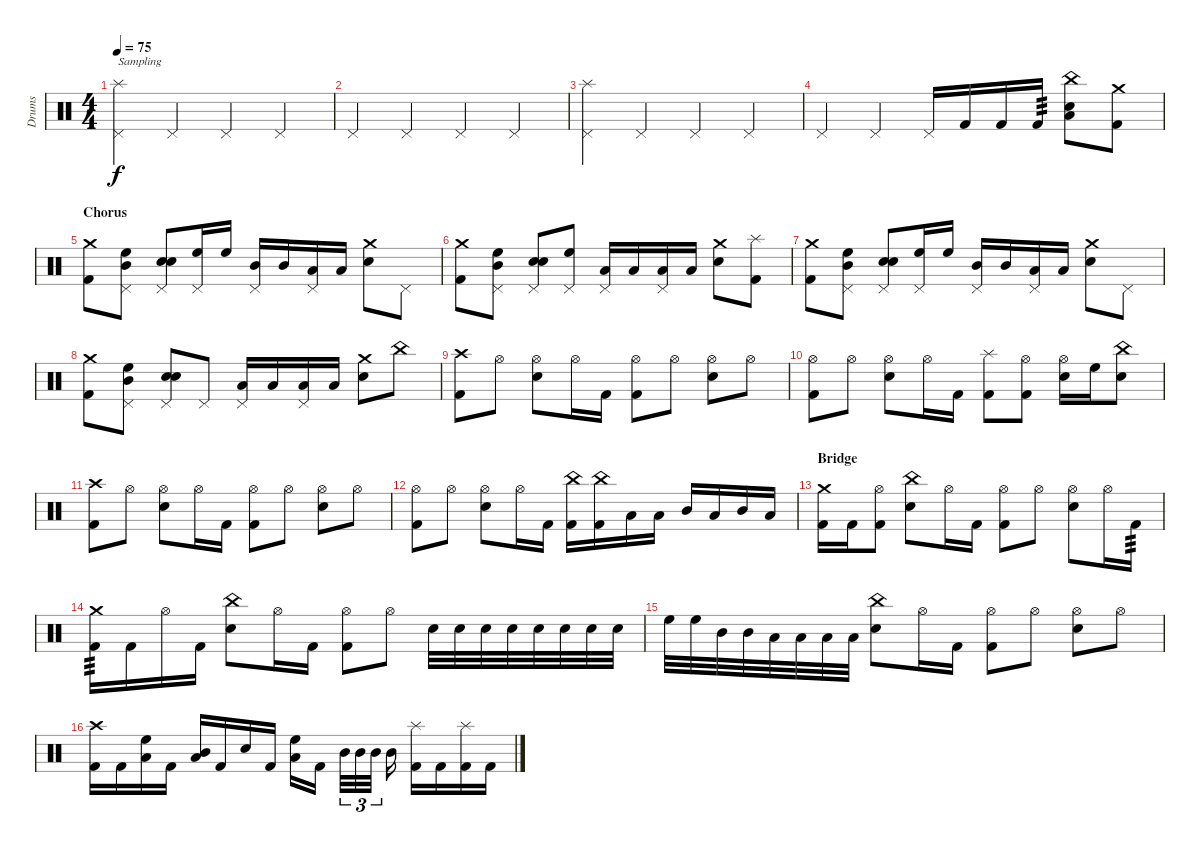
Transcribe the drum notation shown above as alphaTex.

\track ("Drums" "Drums") {instrument percussion}
\staff {score}
\articulation defaults
\ts (4 4)
\tempo 75
\clef neutral
\ks c
("Pedal Hi-Hat (hit)" "Splash (hit)").4{txt "Sampling" dy f} "Pedal Hi-Hat (hit)".4 "Pedal Hi-Hat (hit)".4 "Pedal Hi-Hat (hit)".4 |
"Pedal Hi-Hat (hit)".4 "Pedal Hi-Hat (hit)".4 "Pedal Hi-Hat (hit)".4 "Pedal Hi-Hat (hit)".4 |
("Pedal Hi-Hat (hit)" "Splash (hit)").4 "Pedal Hi-Hat (hit)".4 "Pedal Hi-Hat (hit)".4 "Pedal Hi-Hat (hit)".4 |
"Pedal Hi-Hat (hit)".4 "Pedal Hi-Hat (hit)".4 "Pedal Hi-Hat (hit)".16 "Kick (hit) 2".16 "Kick (hit) 2".16 "Kick (hit) 2".16{tp 3} ("China (hit)" "Snare (hit) 2" "Low Floor Tom (hit)").8 ("Crash medium (hit)" "Kick (hit) 2").8 |
\section ("" "Chorus")
("Crash medium (hit)" "Kick (hit) 2").8 ("Pedal Hi-Hat (hit)" "High Floor Tom (hit)" "Mid Tom (hit)").8 ("Pedal Hi-Hat (hit)" "Snare (hit) 2" "Snare (hit) 2").8 ("Pedal Hi-Hat (hit)" "High Floor Tom (hit)").16 "High Floor Tom (hit)".16 ("Pedal Hi-Hat (hit)" "Mid Tom (hit)").16 "Mid Tom (hit)".16 ("Pedal Hi-Hat (hit)" "Low Tom (hit)").16 "Low Tom (hit)".16 ("Crash medium (hit)" "Snare (hit) 2").8 "Pedal Hi-Hat (hit)".8 |
("Crash medium (hit)" "Kick (hit) 2").8 ("Pedal Hi-Hat (hit)" "High Floor Tom (hit)" "Mid Tom (hit)").8 ("Pedal Hi-Hat (hit)" "Snare (hit) 2" "Snare (hit) 2").8 ("Pedal Hi-Hat (hit)" "High Floor Tom (hit)").8 ("Pedal Hi-Hat (hit)" "Low Tom (hit)").16 "Low Tom (hit)".16 ("Pedal Hi-Hat (hit)" "Low Floor Tom (hit)").16 "Low Floor Tom (hit)".16 ("Crash medium (hit)" "Snare (hit) 2").8 ("Splash (hit)" "Kick (hit) 2").8 |
("Crash medium (hit)" "Kick (hit) 2").8 ("Pedal Hi-Hat (hit)" "High Floor Tom (hit)" "Mid Tom (hit)").8 ("Pedal Hi-Hat (hit)" "Snare (hit) 2" "Snare (hit) 2").8 ("Pedal Hi-Hat (hit)" "High Floor Tom (hit)").16 "High Floor Tom (hit)".16 ("Pedal Hi-Hat (hit)" "Mid Tom (hit)").16 "Mid Tom (hit)".16 ("Pedal Hi-Hat (hit)" "Low Tom (hit)").16 "Low Tom (hit)".16 ("Crash medium (hit)" "Snare (hit) 2").8 "Pedal Hi-Hat (hit)".8 |
("Crash medium (hit)" "Kick (hit) 2").8 ("Pedal Hi-Hat (hit)" "High Floor Tom (hit)" "Mid Tom (hit)").8 ("Pedal Hi-Hat (hit)" "Snare (hit) 2" "Snare (hit) 2").8 "Pedal Hi-Hat (hit)".8 ("Pedal Hi-Hat (hit)" "Low Tom (hit)").16 "Low Tom (hit)".16 ("Pedal Hi-Hat (hit)" "Low Floor Tom (hit)").16 "Low Floor Tom (hit)".16 ("Crash medium (hit)" "Snare (hit) 2").8 "China (hit)".8 |
("Crash high (hit)" "Kick (hit) 2").8 "Hi-Hat (open)".8 ("Hi-Hat (open)" "Snare (hit) 2").8 "Hi-Hat (open)".16 "Kick (hit) 2".16 ("Hi-Hat (open)" "Kick (hit) 2").8 "Hi-Hat (open)".8 ("Hi-Hat (open)" "Snare (hit) 2").8 "Hi-Hat (open)".8 |
("Hi-Hat (open)" "Kick (hit) 2").8 "Hi-Hat (open)".8 ("Hi-Hat (open)" "Snare (hit) 2").8 "Hi-Hat (open)".16 "Kick (hit) 2".16 ("Splash (hit)" "Kick (hit) 2").8 ("Hi-Hat (open)" "Kick (hit) 2").8 ("Hi-Hat (open)" "Snare (hit) 2").16 "High Floor Tom (hit)".16 ("China (hit)" "Snare (hit) 2").8 |
("Crash high (hit)" "Kick (hit) 2").8 "Hi-Hat (open)".8 ("Hi-Hat (open)" "Snare (hit) 2").8 "Hi-Hat (open)".16 "Kick (hit) 2".16 ("Hi-Hat (open)" "Kick (hit) 2").8 "Hi-Hat (open)".8 ("Hi-Hat (open)" "Snare (hit) 2").8 "Hi-Hat (open)".8 |
("Hi-Hat (open)" "Kick (hit) 2").8 "Hi-Hat (open)".8 ("Hi-Hat (open)" "Snare (hit) 2").8 "Hi-Hat (open)".16 "Kick (hit) 2".16 ("China (hit)" "Kick (hit) 2").16 ("China (hit)" "Kick (hit) 2").16 "Low Floor Tom (hit)".16 "Low Floor Tom (hit)".16 "Mid Tom (hit)".16 "Low Tom (hit)".16 "Mid Tom (hit)".16 "Low Tom (hit)".16 |
\section ("" "Bridge")
("Crash medium (hit)" "Kick (hit) 2").16 "Kick (hit) 2".16 ("Hi-Hat (open)" "Kick (hit) 2").8 ("China (hit)" "Snare (hit) 2").8 "Hi-Hat (open)".16 "Kick (hit) 2".16 ("Hi-Hat (open)" "Kick (hit) 2").8 "Hi-Hat (open)".8 ("Hi-Hat (open)" "Snare (hit) 2").8 "Hi-Hat (open)".16 "Kick (hit) 2".16{tp 3} |
("Crash medium (hit)" "Kick (hit) 2").16{tp 3} "Kick (hit) 2".16 "Hi-Hat (open)".16 "Kick (hit) 2".16 ("China (hit)" "Snare (hit) 2").8 "Hi-Hat (open)".16 "Kick (hit) 2".16 ("Hi-Hat (open)" "Kick (hit) 2").8 "Hi-Hat (open)".8 "Snare (hit) 2".32 "Snare (hit) 2".32 "Snare (hit) 2".32 "Snare (hit) 2".32 "Snare (hit) 2".32 "Snare (hit) 2".32 "Snare (hit) 2".32 "Snare (hit) 2".32 |
"High Floor Tom (hit)".32 "High Floor Tom (hit)".32 "Mid Tom (hit)".32 "Mid Tom (hit)".32 "Low Tom (hit)".32 "Low Tom (hit)".32 "Low Floor Tom (hit)".32 "Low Floor Tom (hit)".32 ("China (hit)" "Snare (hit) 2").8 "Hi-Hat (open)".16 "Kick (hit) 2".16 ("Hi-Hat (open)" "Kick (hit) 2").8 "Hi-Hat (open)".8 ("Hi-Hat (open)" "Snare (hit) 2").8 "Hi-Hat (open)".8 |
("Crash high (hit)" "Kick (hit) 2").16 "Kick (hit) 2".16 ("High Floor Tom (hit)" "Low Tom (hit)").16 "Kick (hit) 2".16 ("Mid Tom (hit)" "Low Floor Tom (hit)").16 "Kick (hit) 2".16 "Snare (hit) 2".16 "Kick (hit) 2".16 ("High Floor Tom (hit)" "Low Tom (hit)").16 "Kick (hit) 2".16 "Mid Tom (hit)".32{tu (3 2)} "Mid Tom (hit)".32{tu (3 2)} "Mid Tom (hit)".32{tu (3 2)} "Mid Tom (hit)".16 ("Splash (hit)" "Kick (hit) 2").16 "Kick (hit) 2".16 ("Splash (hit)" "Kick (hit) 2").16 "Kick (hit) 2".16
